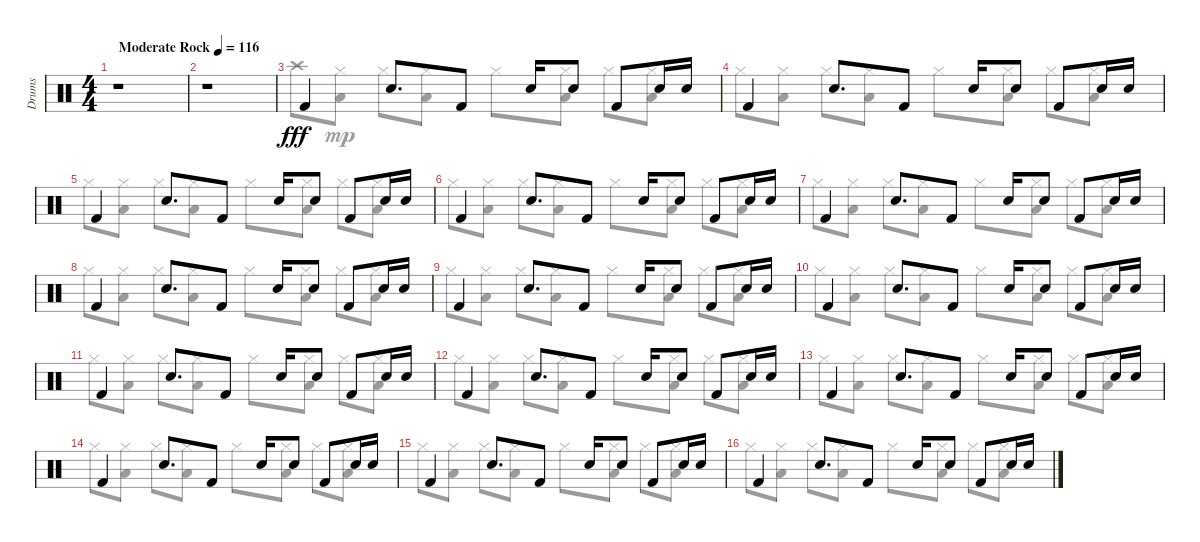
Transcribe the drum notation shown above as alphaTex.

\track ("Drums" "Drums") {instrument percussion}
\staff {score}
\articulation defaults
\voice
\ts (4 4)
\tempo (116 "Moderate Rock")
\clef neutral
\ks c
r.1{dy fff} |
r.1 |
"Kick (hit) 2".4 "Electric Snare (hit)".8{d} "Kick (hit) 2".8 "Electric Snare (hit)".16 "Electric Snare (hit)".8 "Kick (hit) 2".8 "Electric Snare (hit)".16 "Electric Snare (hit)".16 |
"Kick (hit) 2".4 "Electric Snare (hit)".8{d} "Kick (hit) 2".8 "Electric Snare (hit)".16 "Electric Snare (hit)".8 "Kick (hit) 2".8 "Electric Snare (hit)".16 "Electric Snare (hit)".16 |
"Kick (hit) 2".4 "Electric Snare (hit)".8{d} "Kick (hit) 2".8 "Electric Snare (hit)".16 "Electric Snare (hit)".8 "Kick (hit) 2".8 "Electric Snare (hit)".16 "Electric Snare (hit)".16 |
"Kick (hit) 2".4 "Electric Snare (hit)".8{d} "Kick (hit) 2".8 "Electric Snare (hit)".16 "Electric Snare (hit)".8 "Kick (hit) 2".8 "Electric Snare (hit)".16 "Electric Snare (hit)".16 |
"Kick (hit) 2".4 "Electric Snare (hit)".8{d} "Kick (hit) 2".8 "Electric Snare (hit)".16 "Electric Snare (hit)".8 "Kick (hit) 2".8 "Electric Snare (hit)".16 "Electric Snare (hit)".16 |
"Kick (hit) 2".4 "Electric Snare (hit)".8{d} "Kick (hit) 2".8 "Electric Snare (hit)".16 "Electric Snare (hit)".8 "Kick (hit) 2".8 "Electric Snare (hit)".16 "Electric Snare (hit)".16 |
"Kick (hit) 2".4 "Electric Snare (hit)".8{d} "Kick (hit) 2".8 "Electric Snare (hit)".16 "Electric Snare (hit)".8 "Kick (hit) 2".8 "Electric Snare (hit)".16 "Electric Snare (hit)".16 |
"Kick (hit) 2".4 "Electric Snare (hit)".8{d} "Kick (hit) 2".8 "Electric Snare (hit)".16 "Electric Snare (hit)".8 "Kick (hit) 2".8 "Electric Snare (hit)".16 "Electric Snare (hit)".16 |
"Kick (hit) 2".4 "Electric Snare (hit)".8{d} "Kick (hit) 2".8 "Electric Snare (hit)".16 "Electric Snare (hit)".8 "Kick (hit) 2".8 "Electric Snare (hit)".16 "Electric Snare (hit)".16 |
"Kick (hit) 2".4 "Electric Snare (hit)".8{d} "Kick (hit) 2".8 "Electric Snare (hit)".16 "Electric Snare (hit)".8 "Kick (hit) 2".8 "Electric Snare (hit)".16 "Electric Snare (hit)".16 |
"Kick (hit) 2".4 "Electric Snare (hit)".8{d} "Kick (hit) 2".8 "Electric Snare (hit)".16 "Electric Snare (hit)".8 "Kick (hit) 2".8 "Electric Snare (hit)".16 "Electric Snare (hit)".16 |
"Kick (hit) 2".4 "Electric Snare (hit)".8{d} "Kick (hit) 2".8 "Electric Snare (hit)".16 "Electric Snare (hit)".8 "Kick (hit) 2".8 "Electric Snare (hit)".16 "Electric Snare (hit)".16 |
"Kick (hit) 2".4 "Electric Snare (hit)".8{d} "Kick (hit) 2".8 "Electric Snare (hit)".16 "Electric Snare (hit)".8 "Kick (hit) 2".8 "Electric Snare (hit)".16 "Electric Snare (hit)".16 |
"Kick (hit) 2".4 "Electric Snare (hit)".8{d} "Kick (hit) 2".8 "Electric Snare (hit)".16 "Electric Snare (hit)".8 "Kick (hit) 2".8 "Electric Snare (hit)".16 "Electric Snare (hit)".16
\voice
\clef neutral
\ottava regular
\simile none
\ks c
|
|
"Crash high (hit)".8 ("Hi-Hat (closed)" "Low Floor Tom (hit)").8{dy mp} "Hi-Hat (closed)".8 ("Hi-Hat (closed)" "Low Floor Tom (hit)").8 "Hi-Hat (closed)".8 ("Hi-Hat (closed)" "Low Floor Tom (hit)").8 "Hi-Hat (closed)".8 ("Hi-Hat (closed)" "Low Floor Tom (hit)").8 |
"Hi-Hat (closed)".8 ("Hi-Hat (closed)" "Low Floor Tom (hit)").8 "Hi-Hat (closed)".8 ("Hi-Hat (closed)" "Low Floor Tom (hit)").8 "Hi-Hat (closed)".8 ("Hi-Hat (closed)" "Low Floor Tom (hit)").8 "Hi-Hat (closed)".8 ("Hi-Hat (closed)" "Low Floor Tom (hit)").8 |
"Hi-Hat (closed)".8 ("Hi-Hat (closed)" "Low Floor Tom (hit)").8 "Hi-Hat (closed)".8 ("Hi-Hat (closed)" "Low Floor Tom (hit)").8 "Hi-Hat (closed)".8 ("Hi-Hat (closed)" "Low Floor Tom (hit)").8 "Hi-Hat (closed)".8 ("Hi-Hat (closed)" "Low Floor Tom (hit)").8 |
"Hi-Hat (closed)".8 ("Hi-Hat (closed)" "Low Floor Tom (hit)").8 "Hi-Hat (closed)".8 ("Hi-Hat (closed)" "Low Floor Tom (hit)").8 "Hi-Hat (closed)".8 ("Hi-Hat (closed)" "Low Floor Tom (hit)").8 "Hi-Hat (closed)".8 ("Hi-Hat (closed)" "Low Floor Tom (hit)").8 |
"Hi-Hat (closed)".8 ("Hi-Hat (closed)" "Low Floor Tom (hit)").8 "Hi-Hat (closed)".8 ("Hi-Hat (closed)" "Low Floor Tom (hit)").8 "Hi-Hat (closed)".8 ("Hi-Hat (closed)" "Low Floor Tom (hit)").8 "Hi-Hat (closed)".8 ("Hi-Hat (closed)" "Low Floor Tom (hit)").8 |
"Hi-Hat (closed)".8 ("Hi-Hat (closed)" "Low Floor Tom (hit)").8 "Hi-Hat (closed)".8 ("Hi-Hat (closed)" "Low Floor Tom (hit)").8 "Hi-Hat (closed)".8 ("Hi-Hat (closed)" "Low Floor Tom (hit)").8 "Hi-Hat (closed)".8 ("Hi-Hat (closed)" "Low Floor Tom (hit)").8 |
"Hi-Hat (closed)".8 ("Hi-Hat (closed)" "Low Floor Tom (hit)").8 "Hi-Hat (closed)".8 ("Hi-Hat (closed)" "Low Floor Tom (hit)").8 "Hi-Hat (closed)".8 ("Hi-Hat (closed)" "Low Floor Tom (hit)").8 "Hi-Hat (closed)".8 ("Hi-Hat (closed)" "Low Floor Tom (hit)").8 |
"Hi-Hat (closed)".8 ("Hi-Hat (closed)" "Low Floor Tom (hit)").8 "Hi-Hat (closed)".8 ("Hi-Hat (closed)" "Low Floor Tom (hit)").8 "Hi-Hat (closed)".8 ("Hi-Hat (closed)" "Low Floor Tom (hit)").8 "Hi-Hat (closed)".8 ("Hi-Hat (closed)" "Low Floor Tom (hit)").8 |
"Hi-Hat (closed)".8 ("Hi-Hat (closed)" "Low Floor Tom (hit)").8 "Hi-Hat (closed)".8 ("Hi-Hat (closed)" "Low Floor Tom (hit)").8 "Hi-Hat (closed)".8 ("Hi-Hat (closed)" "Low Floor Tom (hit)").8 "Hi-Hat (closed)".8 ("Hi-Hat (closed)" "Low Floor Tom (hit)").8 |
"Hi-Hat (closed)".8 ("Hi-Hat (closed)" "Low Floor Tom (hit)").8 "Hi-Hat (closed)".8 ("Hi-Hat (closed)" "Low Floor Tom (hit)").8 "Hi-Hat (closed)".8 ("Hi-Hat (closed)" "Low Floor Tom (hit)").8 "Hi-Hat (closed)".8 ("Hi-Hat (closed)" "Low Floor Tom (hit)").8 |
"Hi-Hat (closed)".8 ("Hi-Hat (closed)" "Low Floor Tom (hit)").8 "Hi-Hat (closed)".8 ("Hi-Hat (closed)" "Low Floor Tom (hit)").8 "Hi-Hat (closed)".8 ("Hi-Hat (closed)" "Low Floor Tom (hit)").8 "Hi-Hat (closed)".8 ("Hi-Hat (closed)" "Low Floor Tom (hit)").8 |
"Hi-Hat (closed)".8 ("Hi-Hat (closed)" "Low Floor Tom (hit)").8 "Hi-Hat (closed)".8 ("Hi-Hat (closed)" "Low Floor Tom (hit)").8 "Hi-Hat (closed)".8 ("Hi-Hat (closed)" "Low Floor Tom (hit)").8 "Hi-Hat (closed)".8 ("Hi-Hat (closed)" "Low Floor Tom (hit)").8 |
"Hi-Hat (closed)".8 ("Hi-Hat (closed)" "Low Floor Tom (hit)").8 "Hi-Hat (closed)".8 ("Hi-Hat (closed)" "Low Floor Tom (hit)").8 "Hi-Hat (closed)".8 ("Hi-Hat (closed)" "Low Floor Tom (hit)").8 "Hi-Hat (closed)".8 ("Hi-Hat (closed)" "Low Floor Tom (hit)").8 |
"Hi-Hat (closed)".8 ("Hi-Hat (closed)" "Low Floor Tom (hit)").8 "Hi-Hat (closed)".8 ("Hi-Hat (closed)" "Low Floor Tom (hit)").8 "Hi-Hat (closed)".8 ("Hi-Hat (closed)" "Low Floor Tom (hit)").8 "Hi-Hat (closed)".8 ("Hi-Hat (closed)" "Low Floor Tom (hit)").8
